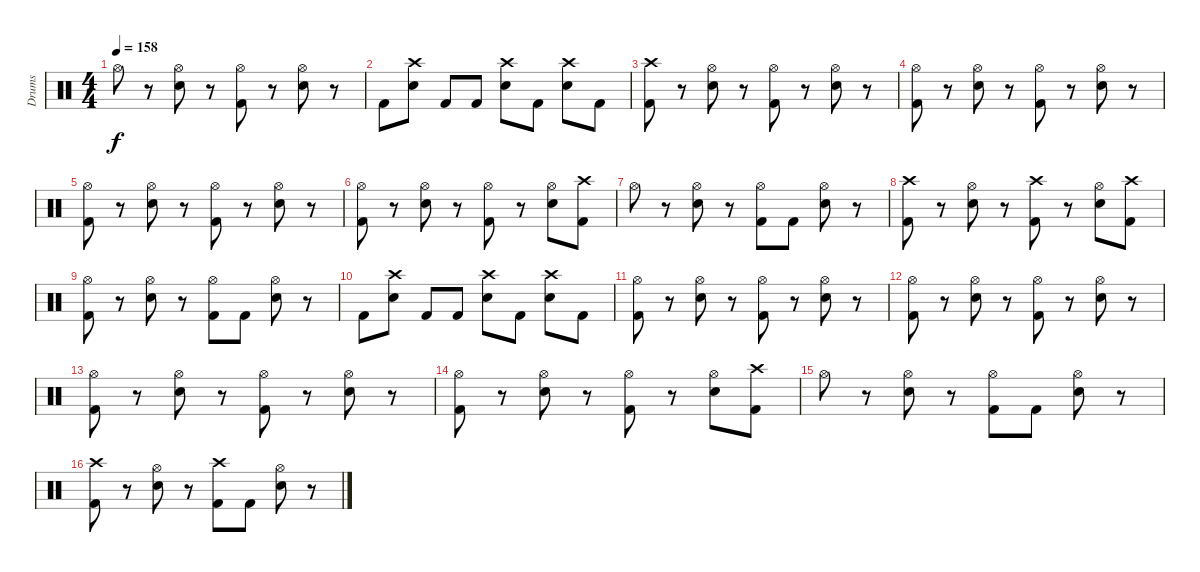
\track ("Drums" "Drums") {instrument percussion}
\staff {score}
\articulation defaults
\ts (4 4)
\tempo 158
\clef neutral
\ks c "Hi-Hat (open)".8{dy f}
r.8 ("Hi-Hat (open)" "Snare (hit) 2").8 r.8 ("Hi-Hat (open)" "Kick (hit) 2").8 r.8 ("Hi-Hat (open)" "Snare (hit) 2").8 r.8 |
"Kick (hit) 2".8 ("Crash high (hit)" "Snare (hit) 2").8 "Kick (hit) 2".8 "Kick (hit) 2".8 ("Crash high (hit)" "Snare (hit) 2").8 "Kick (hit) 2".8 ("Crash high (hit)" "Snare (hit) 2").8 "Kick (hit) 2".8 |
("Crash high (hit)" "Kick (hit) 2").8 r.8 ("Hi-Hat (open)" "Snare (hit) 2").8 r.8 ("Hi-Hat (open)" "Kick (hit) 2").8 r.8 ("Hi-Hat (open)" "Snare (hit) 2").8 r.8 |
("Hi-Hat (open)" "Kick (hit) 2").8 r.8 ("Hi-Hat (open)" "Snare (hit) 2").8 r.8 ("Hi-Hat (open)" "Kick (hit) 2").8 r.8 ("Hi-Hat (open)" "Snare (hit) 2").8 r.8 |
("Hi-Hat (open)" "Kick (hit) 2").8 r.8 ("Hi-Hat (open)" "Snare (hit) 2").8 r.8 ("Hi-Hat (open)" "Kick (hit) 2").8 r.8 ("Hi-Hat (open)" "Snare (hit) 2").8 r.8 |
("Hi-Hat (open)" "Kick (hit) 2").8 r.8 ("Hi-Hat (open)" "Snare (hit) 2").8 r.8 ("Hi-Hat (open)" "Kick (hit) 2").8 r.8 ("Hi-Hat (open)" "Snare (hit) 2").8 ("Crash high (hit)" "Kick (hit) 2").8 |
"Hi-Hat (open)".8 r.8 ("Hi-Hat (open)" "Snare (hit) 2").8 r.8 ("Hi-Hat (open)" "Kick (hit) 2").8 "Kick (hit) 2".8 ("Hi-Hat (open)" "Snare (hit) 2").8 r.8 |
("Crash high (hit)" "Kick (hit) 2").8 r.8 ("Hi-Hat (open)" "Snare (hit) 2").8 r.8 ("Crash high (hit)" "Kick (hit) 2").8 r.8 ("Hi-Hat (open)" "Snare (hit) 2").8 ("Crash high (hit)" "Kick (hit) 2").8 |
("Hi-Hat (open)" "Kick (hit) 2").8 r.8 ("Hi-Hat (open)" "Snare (hit) 2").8 r.8 ("Hi-Hat (open)" "Kick (hit) 2").8 "Kick (hit) 2".8 ("Hi-Hat (open)" "Snare (hit) 2").8 r.8 |
"Kick (hit) 2".8 ("Crash high (hit)" "Snare (hit) 2").8 "Kick (hit) 2".8 "Kick (hit) 2".8 ("Crash high (hit)" "Snare (hit) 2").8 "Kick (hit) 2".8 ("Crash high (hit)" "Snare (hit) 2").8 "Kick (hit) 2".8 |
("Hi-Hat (open)" "Kick (hit) 2").8 r.8 ("Hi-Hat (open)" "Snare (hit) 2").8 r.8 ("Hi-Hat (open)" "Kick (hit) 2").8 r.8 ("Hi-Hat (open)" "Snare (hit) 2").8 r.8 |
("Hi-Hat (open)" "Kick (hit) 2").8 r.8 ("Hi-Hat (open)" "Snare (hit) 2").8 r.8 ("Hi-Hat (open)" "Kick (hit) 2").8 r.8 ("Hi-Hat (open)" "Snare (hit) 2").8 r.8 |
("Hi-Hat (open)" "Kick (hit) 2").8 r.8 ("Hi-Hat (open)" "Snare (hit) 2").8 r.8 ("Hi-Hat (open)" "Kick (hit) 2").8 r.8 ("Hi-Hat (open)" "Snare (hit) 2").8 r.8 |
("Hi-Hat (open)" "Kick (hit) 2").8 r.8 ("Hi-Hat (open)" "Snare (hit) 2").8 r.8 ("Hi-Hat (open)" "Kick (hit) 2").8 r.8 ("Hi-Hat (open)" "Snare (hit) 2").8 ("Crash high (hit)" "Kick (hit) 2").8 |
"Hi-Hat (open)".8 r.8 ("Hi-Hat (open)" "Snare (hit) 2").8 r.8 ("Hi-Hat (open)" "Kick (hit) 2").8 "Kick (hit) 2".8 ("Hi-Hat (open)" "Snare (hit) 2").8 r.8 |
("Crash high (hit)" "Kick (hit) 2").8 r.8 ("Hi-Hat (open)" "Snare (hit) 2").8 r.8 ("Crash high (hit)" "Kick (hit) 2").8 "Kick (hit) 2".8 ("Hi-Hat (open)" "Snare (hit) 2").8 r.8
